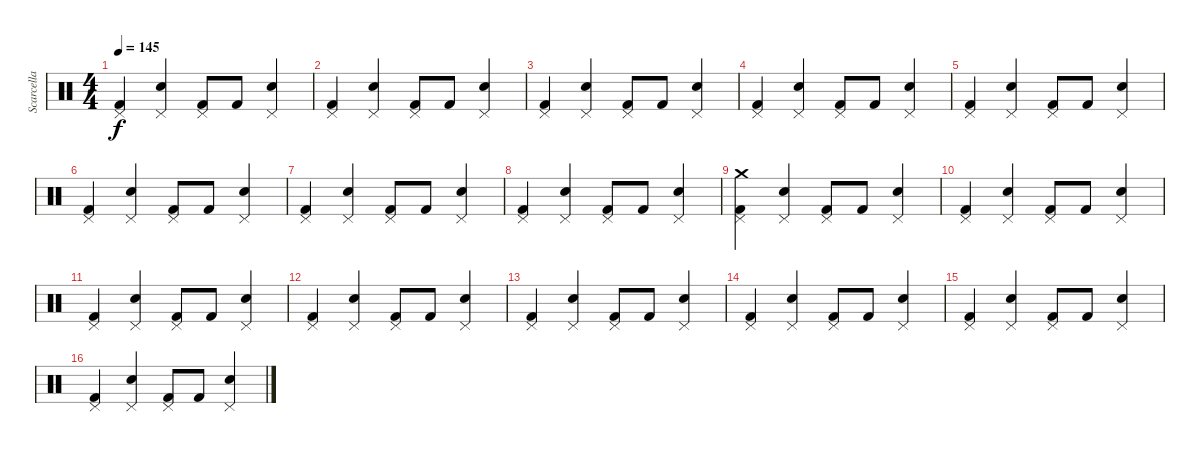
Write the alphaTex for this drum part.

\track ("Scarcella" "Scarcella") {instrument percussion}
\staff {score}
\articulation defaults
\ts (4 4)
\tempo 145
\clef neutral
\ks c
("Pedal Hi-Hat (hit)" "Kick (hit) 2").4{dy f} ("Pedal Hi-Hat (hit)" "Snare (hit) 2").4 ("Pedal Hi-Hat (hit)" "Kick (hit) 2").8 "Kick (hit) 2".8 ("Pedal Hi-Hat (hit)" "Snare (hit) 2").4 |
("Pedal Hi-Hat (hit)" "Kick (hit) 2").4 ("Pedal Hi-Hat (hit)" "Snare (hit) 2").4 ("Pedal Hi-Hat (hit)" "Kick (hit) 2").8 "Kick (hit) 2".8 ("Pedal Hi-Hat (hit)" "Snare (hit) 2").4 |
("Pedal Hi-Hat (hit)" "Kick (hit) 2").4 ("Pedal Hi-Hat (hit)" "Snare (hit) 2").4 ("Pedal Hi-Hat (hit)" "Kick (hit) 2").8 "Kick (hit) 2".8 ("Pedal Hi-Hat (hit)" "Snare (hit) 2").4 |
("Pedal Hi-Hat (hit)" "Kick (hit) 2").4 ("Pedal Hi-Hat (hit)" "Snare (hit) 2").4 ("Pedal Hi-Hat (hit)" "Kick (hit) 2").8 "Kick (hit) 2".8 ("Pedal Hi-Hat (hit)" "Snare (hit) 2").4 |
("Pedal Hi-Hat (hit)" "Kick (hit) 2").4 ("Pedal Hi-Hat (hit)" "Snare (hit) 2").4 ("Pedal Hi-Hat (hit)" "Kick (hit) 2").8 "Kick (hit) 2".8 ("Pedal Hi-Hat (hit)" "Snare (hit) 2").4 |
("Pedal Hi-Hat (hit)" "Kick (hit) 2").4 ("Pedal Hi-Hat (hit)" "Snare (hit) 2").4 ("Pedal Hi-Hat (hit)" "Kick (hit) 2").8 "Kick (hit) 2".8 ("Pedal Hi-Hat (hit)" "Snare (hit) 2").4 |
("Pedal Hi-Hat (hit)" "Kick (hit) 2").4 ("Pedal Hi-Hat (hit)" "Snare (hit) 2").4 ("Pedal Hi-Hat (hit)" "Kick (hit) 2").8 "Kick (hit) 2".8 ("Pedal Hi-Hat (hit)" "Snare (hit) 2").4 |
("Pedal Hi-Hat (hit)" "Kick (hit) 2").4 ("Pedal Hi-Hat (hit)" "Snare (hit) 2").4 ("Pedal Hi-Hat (hit)" "Kick (hit) 2").8 "Kick (hit) 2".8 ("Pedal Hi-Hat (hit)" "Snare (hit) 2").4 |
("Pedal Hi-Hat (hit)" "Crash medium (hit)" "Kick (hit) 2").4 ("Pedal Hi-Hat (hit)" "Snare (hit) 2").4 ("Pedal Hi-Hat (hit)" "Kick (hit) 2").8 "Kick (hit) 2".8 ("Pedal Hi-Hat (hit)" "Snare (hit) 2").4 |
("Pedal Hi-Hat (hit)" "Kick (hit) 2").4 ("Pedal Hi-Hat (hit)" "Snare (hit) 2").4 ("Pedal Hi-Hat (hit)" "Kick (hit) 2").8 "Kick (hit) 2".8 ("Pedal Hi-Hat (hit)" "Snare (hit) 2").4 |
("Pedal Hi-Hat (hit)" "Kick (hit) 2").4 ("Pedal Hi-Hat (hit)" "Snare (hit) 2").4 ("Pedal Hi-Hat (hit)" "Kick (hit) 2").8 "Kick (hit) 2".8 ("Pedal Hi-Hat (hit)" "Snare (hit) 2").4 |
("Pedal Hi-Hat (hit)" "Kick (hit) 2").4 ("Pedal Hi-Hat (hit)" "Snare (hit) 2").4 ("Pedal Hi-Hat (hit)" "Kick (hit) 2").8 "Kick (hit) 2".8 ("Pedal Hi-Hat (hit)" "Snare (hit) 2").4 |
("Pedal Hi-Hat (hit)" "Kick (hit) 2").4 ("Pedal Hi-Hat (hit)" "Snare (hit) 2").4 ("Pedal Hi-Hat (hit)" "Kick (hit) 2").8 "Kick (hit) 2".8 ("Pedal Hi-Hat (hit)" "Snare (hit) 2").4 |
("Pedal Hi-Hat (hit)" "Kick (hit) 2").4 ("Pedal Hi-Hat (hit)" "Snare (hit) 2").4 ("Pedal Hi-Hat (hit)" "Kick (hit) 2").8 "Kick (hit) 2".8 ("Pedal Hi-Hat (hit)" "Snare (hit) 2").4 |
("Pedal Hi-Hat (hit)" "Kick (hit) 2").4 ("Pedal Hi-Hat (hit)" "Snare (hit) 2").4 ("Pedal Hi-Hat (hit)" "Kick (hit) 2").8 "Kick (hit) 2".8 ("Pedal Hi-Hat (hit)" "Snare (hit) 2").4 |
("Pedal Hi-Hat (hit)" "Kick (hit) 2").4 ("Pedal Hi-Hat (hit)" "Snare (hit) 2").4 ("Pedal Hi-Hat (hit)" "Kick (hit) 2").8 "Kick (hit) 2".8 ("Pedal Hi-Hat (hit)" "Snare (hit) 2").4
